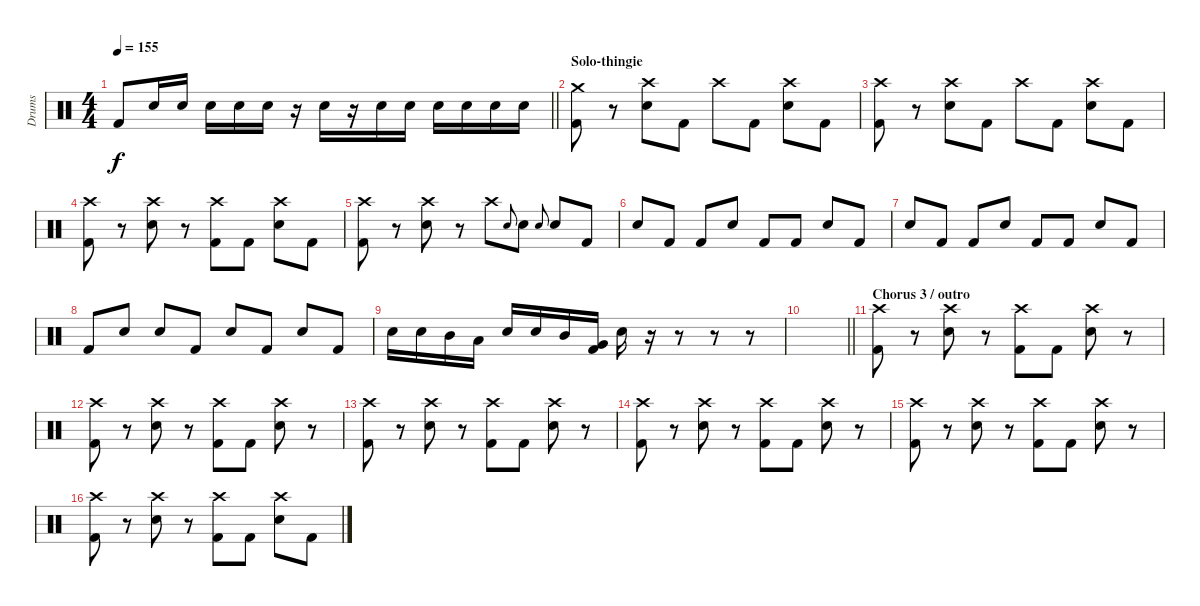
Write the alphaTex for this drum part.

\track ("Drums" "Drums") {instrument percussion}
\staff {score}
\articulation defaults
\ts (4 4)
\tempo 155
\clef neutral
\barLineRight lightlight
\ks c "Kick (hit) 2".8{dy f} "Electric Snare (hit)".16 "Electric Snare (hit)".16 "Electric Snare (hit)".16 "Electric Snare (hit)".16 "Electric Snare (hit)".16
r.16 "Electric Snare (hit)".16 r.16 "Electric Snare (hit)".16 "Electric Snare (hit)".16 "Electric Snare (hit)".16 "Electric Snare (hit)".16 "Electric Snare (hit)".16 "Electric Snare (hit)".16 |
\section ("" "Solo-thingie")
("Crash medium (hit)" "Kick (hit) 2").8 r.8 ("Crash high (hit)" "Electric Snare (hit)").8 "Kick (hit) 2".8 "Crash high (hit)".8 "Kick (hit) 2".8 ("Crash high (hit)" "Electric Snare (hit)").8 "Kick (hit) 2".8 |
("Crash high (hit)" "Kick (hit) 2").8 r.8 ("Crash high (hit)" "Electric Snare (hit)").8 "Kick (hit) 2".8 "Crash high (hit)".8 "Kick (hit) 2".8 ("Crash high (hit)" "Electric Snare (hit)").8 "Kick (hit) 2".8 |
("Crash high (hit)" "Kick (hit) 2").8 r.8 ("Crash high (hit)" "Electric Snare (hit)").8 r.8 ("Crash high (hit)" "Kick (hit) 2").8 "Kick (hit) 2".8 ("Crash high (hit)" "Electric Snare (hit)").8 "Kick (hit) 2".8 |
("Crash high (hit)" "Kick (hit) 2").8 r.8 ("Crash high (hit)" "Electric Snare (hit)").8 r.8 "Crash high (hit)".8 "Electric Snare (hit)".8{gr onbeat} "Electric Snare (hit)".8 "Electric Snare (hit)".8{gr onbeat} "Electric Snare (hit)".8 "Kick (hit) 2".8 |
"Electric Snare (hit)".8 "Kick (hit) 2".8 "Kick (hit) 2".8 "Electric Snare (hit)".8 "Kick (hit) 2".8 "Kick (hit) 2".8 "Electric Snare (hit)".8 "Kick (hit) 2".8 |
"Electric Snare (hit)".8 "Kick (hit) 2".8 "Kick (hit) 2".8 "Electric Snare (hit)".8 "Kick (hit) 2".8 "Kick (hit) 2".8 "Electric Snare (hit)".8 "Kick (hit) 2".8 |
"Kick (hit) 2".8 "Electric Snare (hit)".8 "Electric Snare (hit)".8 "Kick (hit) 2".8 "Electric Snare (hit)".8 "Kick (hit) 2".8 "Electric Snare (hit)".8 "Kick (hit) 2".8 |
"Electric Snare (hit)".16 "Electric Snare (hit)".16 "Mid Tom (hit)".16 "Low Tom (hit)".16 "Electric Snare (hit)".16 "Electric Snare (hit)".16 "Mid Tom (hit)".16 ("Very Low Tom (hit)" "Kick (hit) 2").16 "Electric Snare (hit)".16 r.16 r.8 r.8 r.8 |
\barLineRight lightlight
|
\section ("" "Chorus 3 / outro")
("Crash high (hit)" "Kick (hit) 2").8 r.8 ("Crash high (hit)" "Electric Snare (hit)").8 r.8 ("Crash high (hit)" "Kick (hit) 2").8 "Kick (hit) 2".8 ("Crash high (hit)" "Electric Snare (hit)").8 r.8 |
("Crash high (hit)" "Kick (hit) 2").8 r.8 ("Crash high (hit)" "Electric Snare (hit)").8 r.8 ("Crash high (hit)" "Kick (hit) 2").8 "Kick (hit) 2".8 ("Crash high (hit)" "Electric Snare (hit)").8 r.8 |
("Crash high (hit)" "Kick (hit) 2").8 r.8 ("Crash high (hit)" "Electric Snare (hit)").8 r.8 ("Crash high (hit)" "Kick (hit) 2").8 "Kick (hit) 2".8 ("Crash high (hit)" "Electric Snare (hit)").8 r.8 |
("Crash high (hit)" "Kick (hit) 2").8 r.8 ("Crash high (hit)" "Electric Snare (hit)").8 r.8 ("Crash high (hit)" "Kick (hit) 2").8 "Kick (hit) 2".8 ("Crash high (hit)" "Electric Snare (hit)").8 r.8 |
("Crash high (hit)" "Kick (hit) 2").8 r.8 ("Crash high (hit)" "Electric Snare (hit)").8 r.8 ("Crash high (hit)" "Kick (hit) 2").8 "Kick (hit) 2".8 ("Crash high (hit)" "Electric Snare (hit)").8 r.8 |
("Crash high (hit)" "Kick (hit) 2").8 r.8 ("Crash high (hit)" "Electric Snare (hit)").8 r.8 ("Crash high (hit)" "Kick (hit) 2").8 "Kick (hit) 2".8 ("Crash high (hit)" "Electric Snare (hit)").8 "Kick (hit) 2".8
